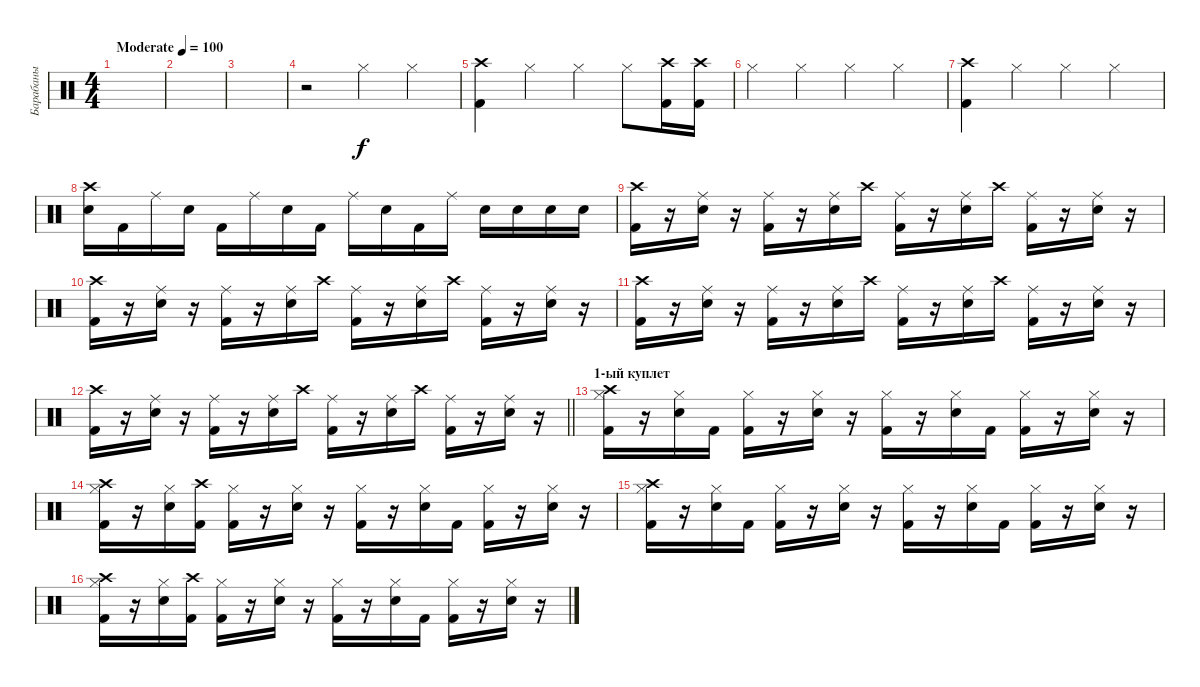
\track ("Барабаны" "Барабаны") {instrument percussion}
\staff {score}
\articulation defaults
\ts (4 4)
\tempo (100 "Moderate")
\clef neutral
\ks c
|
|
|
r.2 "Hi-Hat (closed)".4 "Hi-Hat (closed)".4 |
("Kick (hit) 2" "Crash high (hit)").4 "Hi-Hat (closed)".4 "Hi-Hat (closed)".4 "Hi-Hat (closed)".8 ("Kick (hit) 2" "Crash high (hit)").16 ("Kick (hit) 2" "Crash high (hit)").16 |
"Hi-Hat (closed)".4 "Hi-Hat (closed)".4 "Hi-Hat (closed)".4 "Hi-Hat (closed)".4 |
("Kick (hit) 2" "Crash high (hit)").4 "Hi-Hat (closed)".4 "Hi-Hat (closed)".4 "Hi-Hat (closed)".4 |
("Electric Snare (hit)" "Crash high (hit)").16 "Kick (hit) 2".16 "Ride (middle)".16 "Electric Snare (hit)".16 "Kick (hit) 2".16 "Ride (middle)".16 "Electric Snare (hit)".16 "Kick (hit) 2".16 "Ride (middle)".16 "Electric Snare (hit)".16 "Kick (hit) 2".16 "Ride (middle)".16 "Electric Snare (hit)".16 "Electric Snare (hit)".16 "Electric Snare (hit)".16 "Electric Snare (hit)".16 |
("Kick (hit) 2" "Crash high (hit)").16 r.16 ("Electric Snare (hit)" "Ride (middle)").16 r.16 ("Kick (hit) 2" "Ride (middle)").16 r.16 ("Electric Snare (hit)" "Ride (middle)").16 "Crash high (hit)".16 ("Kick (hit) 2" "Ride (middle)").16 r.16 ("Electric Snare (hit)" "Ride (middle)").16 "Crash high (hit)".16 ("Kick (hit) 2" "Ride (middle)").16 r.16 ("Electric Snare (hit)" "Ride (middle)").16 r.16 |
("Kick (hit) 2" "Crash high (hit)").16 r.16 ("Electric Snare (hit)" "Ride (middle)").16 r.16 ("Kick (hit) 2" "Ride (middle)").16 r.16 ("Electric Snare (hit)" "Ride (middle)").16 "Crash high (hit)".16 ("Kick (hit) 2" "Ride (middle)").16 r.16 ("Electric Snare (hit)" "Ride (middle)").16 "Crash high (hit)".16 ("Kick (hit) 2" "Ride (middle)").16 r.16 ("Electric Snare (hit)" "Ride (middle)").16 r.16 |
("Kick (hit) 2" "Crash high (hit)").16 r.16 ("Electric Snare (hit)" "Ride (middle)").16 r.16 ("Kick (hit) 2" "Ride (middle)").16 r.16 ("Electric Snare (hit)" "Ride (middle)").16 "Crash high (hit)".16 ("Kick (hit) 2" "Ride (middle)").16 r.16 ("Electric Snare (hit)" "Ride (middle)").16 "Crash high (hit)".16 ("Kick (hit) 2" "Ride (middle)").16 r.16 ("Electric Snare (hit)" "Ride (middle)").16 r.16 |
\barLineRight lightlight
("Kick (hit) 2" "Crash high (hit)").16 r.16 ("Electric Snare (hit)" "Ride (middle)").16 r.16 ("Kick (hit) 2" "Ride (middle)").16 r.16 ("Electric Snare (hit)" "Ride (middle)").16 "Crash high (hit)".16 ("Kick (hit) 2" "Ride (middle)").16 r.16 ("Electric Snare (hit)" "Ride (middle)").16 "Crash high (hit)".16 ("Kick (hit) 2" "Ride (middle)").16 r.16 ("Electric Snare (hit)" "Ride (middle)").16 r.16 |
\section ("" "1-ый куплет")
("Kick (hit) 2" "Hi-Hat (closed)" "Crash high (hit)").16 r.16 ("Electric Snare (hit)" "Hi-Hat (closed)").16 "Kick (hit) 2".16 ("Kick (hit) 2" "Hi-Hat (closed)").16 r.16 ("Electric Snare (hit)" "Hi-Hat (closed)").16 r.16 ("Kick (hit) 2" "Hi-Hat (closed)").16 r.16 ("Electric Snare (hit)" "Hi-Hat (closed)").16 "Kick (hit) 2".16 ("Kick (hit) 2" "Hi-Hat (closed)").16 r.16 ("Electric Snare (hit)" "Hi-Hat (closed)").16 r.16 |
("Kick (hit) 2" "Hi-Hat (closed)" "Crash high (hit)").16 r.16 ("Electric Snare (hit)" "Hi-Hat (closed)").16 ("Kick (hit) 2" "Crash high (hit)").16 ("Kick (hit) 2" "Hi-Hat (closed)").16 r.16 ("Electric Snare (hit)" "Hi-Hat (closed)").16 r.16 ("Kick (hit) 2" "Hi-Hat (closed)").16 r.16 ("Electric Snare (hit)" "Hi-Hat (closed)").16 "Kick (hit) 2".16 ("Kick (hit) 2" "Hi-Hat (closed)").16 r.16 ("Electric Snare (hit)" "Hi-Hat (closed)").16 r.16 |
("Kick (hit) 2" "Hi-Hat (closed)" "Crash high (hit)").16 r.16 ("Electric Snare (hit)" "Hi-Hat (closed)").16 "Kick (hit) 2".16 ("Kick (hit) 2" "Hi-Hat (closed)").16 r.16 ("Electric Snare (hit)" "Hi-Hat (closed)").16 r.16 ("Kick (hit) 2" "Hi-Hat (closed)").16 r.16 ("Electric Snare (hit)" "Hi-Hat (closed)").16 "Kick (hit) 2".16 ("Kick (hit) 2" "Hi-Hat (closed)").16 r.16 ("Electric Snare (hit)" "Hi-Hat (closed)").16 r.16 |
("Kick (hit) 2" "Hi-Hat (closed)" "Crash high (hit)").16 r.16 ("Electric Snare (hit)" "Hi-Hat (closed)").16 ("Kick (hit) 2" "Crash high (hit)").16 ("Kick (hit) 2" "Hi-Hat (closed)").16 r.16 ("Electric Snare (hit)" "Hi-Hat (closed)").16 r.16 ("Kick (hit) 2" "Hi-Hat (closed)").16 r.16 ("Electric Snare (hit)" "Hi-Hat (closed)").16 "Kick (hit) 2".16 ("Kick (hit) 2" "Hi-Hat (closed)").16 r.16 ("Electric Snare (hit)" "Hi-Hat (closed)").16 r.16
